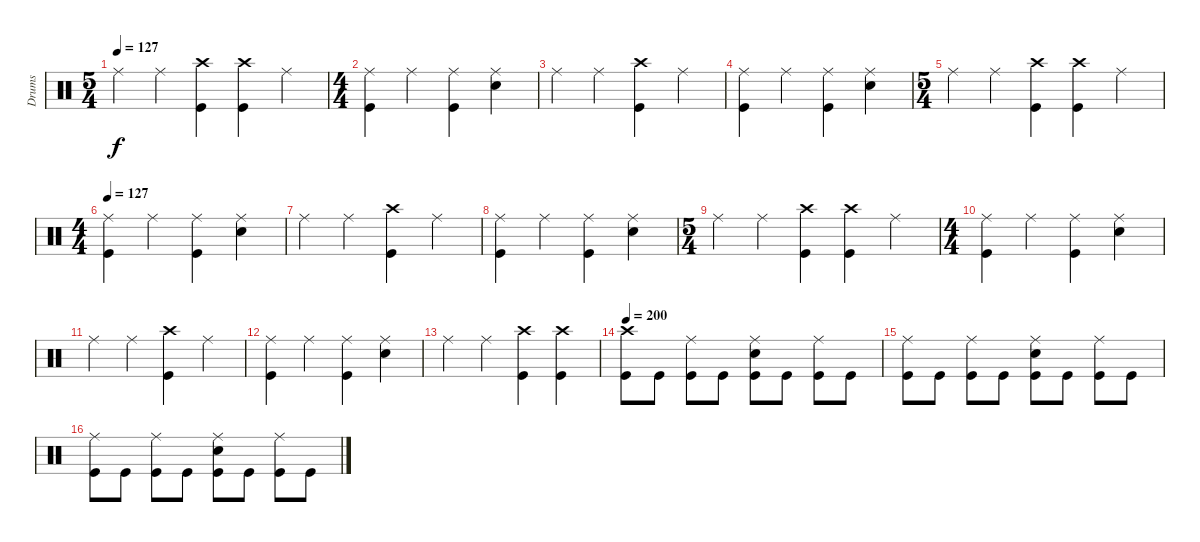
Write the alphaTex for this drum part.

\track ("Drums" "Drums") {instrument percussion}
\staff {score}
\articulation defaults
\ts (5 4)
\tempo 127
\clef neutral
\ks c "Ride (middle)".4{dy f} "Ride (middle)".4
("Crash high (hit)" "Kick (hit)").4 ("Crash high (hit)" "Kick (hit)").4 "Ride (middle)".4 |
\ts (4 4)
("Ride (middle)" "Kick (hit)").4 "Ride (middle)".4 ("Ride (middle)" "Kick (hit)").4 ("Ride (middle)" "Snare (hit) 2").4 |
"Ride (middle)".4 "Ride (middle)".4 ("Crash high (hit)" "Kick (hit)").4 "Ride (middle)".4 |
("Ride (middle)" "Kick (hit)").4 "Ride (middle)".4 ("Ride (middle)" "Kick (hit)").4 ("Ride (middle)" "Snare (hit) 2").4 |
\ts (5 4)
"Ride (middle)".4 "Ride (middle)".4 ("Crash high (hit)" "Kick (hit)").4 ("Crash high (hit)" "Kick (hit)").4 "Ride (middle)".4 |
\ts (4 4)
\tempo 127
("Ride (middle)" "Kick (hit)").4 "Ride (middle)".4 ("Ride (middle)" "Kick (hit)").4 ("Ride (middle)" "Snare (hit) 2").4 |
"Ride (middle)".4 "Ride (middle)".4 ("Crash high (hit)" "Kick (hit)").4 "Ride (middle)".4 |
("Ride (middle)" "Kick (hit)").4 "Ride (middle)".4 ("Ride (middle)" "Kick (hit)").4 ("Ride (middle)" "Snare (hit) 2").4 |
\ts (5 4)
"Ride (middle)".4 "Ride (middle)".4 ("Crash high (hit)" "Kick (hit)").4 ("Crash high (hit)" "Kick (hit)").4 "Ride (middle)".4 |
\ts (4 4)
("Ride (middle)" "Kick (hit)").4 "Ride (middle)".4 ("Ride (middle)" "Kick (hit)").4 ("Ride (middle)" "Snare (hit) 2").4 |
"Ride (middle)".4 "Ride (middle)".4 ("Crash high (hit)" "Kick (hit)").4 "Ride (middle)".4 |
("Ride (middle)" "Kick (hit)").4 "Ride (middle)".4 ("Ride (middle)" "Kick (hit)").4 ("Ride (middle)" "Snare (hit) 2").4 |
"Ride (middle)".4 "Ride (middle)".4 ("Crash high (hit)" "Kick (hit)").4 ("Crash high (hit)" "Kick (hit)").4 |
\tempo 200
("Crash high (hit)" "Kick (hit)").8 "Kick (hit)".8 ("Ride (middle)" "Kick (hit)").8 "Kick (hit)".8 ("Ride (middle)" "Snare (hit) 2" "Kick (hit)").8 "Kick (hit)".8 ("Ride (middle)" "Kick (hit)").8 "Kick (hit)".8 |
("Ride (middle)" "Kick (hit)").8 "Kick (hit)".8 ("Ride (middle)" "Kick (hit)").8 "Kick (hit)".8 ("Ride (middle)" "Snare (hit) 2" "Kick (hit)").8 "Kick (hit)".8 ("Ride (middle)" "Kick (hit)").8 "Kick (hit)".8 |
("Ride (middle)" "Kick (hit)").8 "Kick (hit)".8 ("Ride (middle)" "Kick (hit)").8 "Kick (hit)".8 ("Ride (middle)" "Snare (hit) 2" "Kick (hit)").8 "Kick (hit)".8 ("Ride (middle)" "Kick (hit)").8 "Kick (hit)".8
